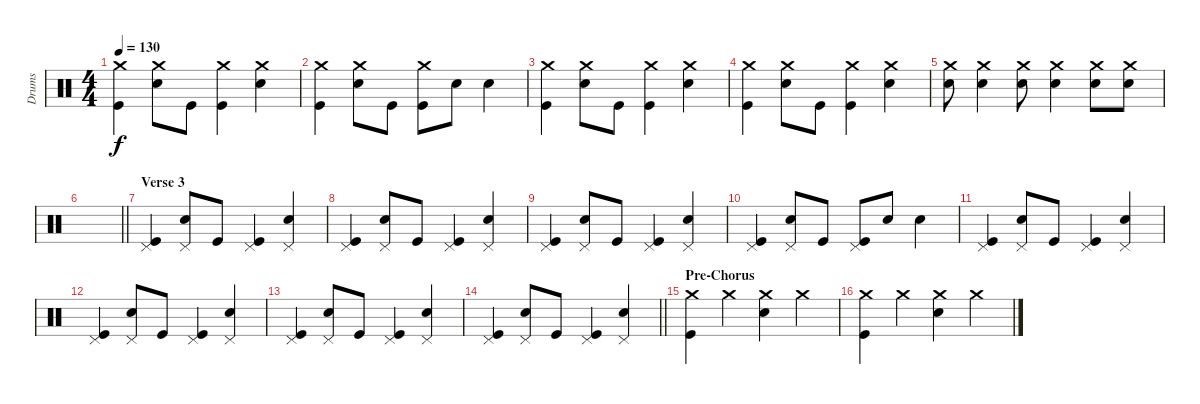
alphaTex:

\track ("Drums" "Drums") {instrument percussion}
\staff {score}
\articulation defaults
\ts (4 4)
\tempo 130
\clef neutral
\ks c
("Kick (hit)" "Crash medium (hit)").4{dy f} ("Electric Snare (hit)" "Crash medium (hit)").8 "Kick (hit)".8 ("Kick (hit)" "Crash medium (hit)").4 ("Electric Snare (hit)" "Crash medium (hit)").4 |
("Kick (hit)" "Crash medium (hit)").4 ("Electric Snare (hit)" "Crash medium (hit)").8 "Kick (hit)".8 ("Kick (hit)" "Crash medium (hit)").8 "Electric Snare (hit)".8 "Electric Snare (hit)".4 |
("Kick (hit)" "Crash medium (hit)").4 ("Electric Snare (hit)" "Crash medium (hit)").8 "Kick (hit)".8 ("Kick (hit)" "Crash medium (hit)").4 ("Electric Snare (hit)" "Crash medium (hit)").4 |
("Kick (hit)" "Crash medium (hit)").4 ("Electric Snare (hit)" "Crash medium (hit)").8 "Kick (hit)".8 ("Kick (hit)" "Crash medium (hit)").4 ("Electric Snare (hit)" "Crash medium (hit)").4 |
("Electric Snare (hit)" "Crash medium (hit)").8 ("Electric Snare (hit)" "Crash medium (hit)").4 ("Electric Snare (hit)" "Crash medium (hit)").8 ("Electric Snare (hit)" "Crash medium (hit)").4 ("Electric Snare (hit)" "Crash medium (hit)").8 ("Electric Snare (hit)" "Crash medium (hit)").8 |
\barLineRight lightlight
|
\section ("" "Verse 3")
("Kick (hit)" "Pedal Hi-Hat (hit)").4 ("Electric Snare (hit)" "Pedal Hi-Hat (hit)").8 "Kick (hit)".8 ("Kick (hit)" "Pedal Hi-Hat (hit)").4 ("Electric Snare (hit)" "Pedal Hi-Hat (hit)").4 |
("Kick (hit)" "Pedal Hi-Hat (hit)").4 ("Electric Snare (hit)" "Pedal Hi-Hat (hit)").8 "Kick (hit)".8 ("Kick (hit)" "Pedal Hi-Hat (hit)").4 ("Electric Snare (hit)" "Pedal Hi-Hat (hit)").4 |
("Kick (hit)" "Pedal Hi-Hat (hit)").4 ("Electric Snare (hit)" "Pedal Hi-Hat (hit)").8 "Kick (hit)".8 ("Kick (hit)" "Pedal Hi-Hat (hit)").4 ("Electric Snare (hit)" "Pedal Hi-Hat (hit)").4 |
("Kick (hit)" "Pedal Hi-Hat (hit)").4 ("Electric Snare (hit)" "Pedal Hi-Hat (hit)").8 "Kick (hit)".8 ("Kick (hit)" "Pedal Hi-Hat (hit)").8 "Electric Snare (hit)".8 "Electric Snare (hit)".4 |
("Kick (hit)" "Pedal Hi-Hat (hit)").4 ("Electric Snare (hit)" "Pedal Hi-Hat (hit)").8 "Kick (hit)".8 ("Kick (hit)" "Pedal Hi-Hat (hit)").4 ("Electric Snare (hit)" "Pedal Hi-Hat (hit)").4 |
("Kick (hit)" "Pedal Hi-Hat (hit)").4 ("Electric Snare (hit)" "Pedal Hi-Hat (hit)").8 "Kick (hit)".8 ("Kick (hit)" "Pedal Hi-Hat (hit)").4 ("Electric Snare (hit)" "Pedal Hi-Hat (hit)").4 |
("Kick (hit)" "Pedal Hi-Hat (hit)").4 ("Electric Snare (hit)" "Pedal Hi-Hat (hit)").8 "Kick (hit)".8 ("Kick (hit)" "Pedal Hi-Hat (hit)").4 ("Electric Snare (hit)" "Pedal Hi-Hat (hit)").4 |
\barLineRight lightlight
("Kick (hit)" "Pedal Hi-Hat (hit)").4 ("Electric Snare (hit)" "Pedal Hi-Hat (hit)").8 "Kick (hit)".8 ("Kick (hit)" "Pedal Hi-Hat (hit)").4 ("Electric Snare (hit)" "Pedal Hi-Hat (hit)").4 |
\section ("" "Pre-Chorus")
("Kick (hit)" "Crash medium (hit)").4 "Crash medium (hit)".4 ("Electric Snare (hit)" "Crash medium (hit)").4 "Crash medium (hit)".4 |
("Kick (hit)" "Crash medium (hit)").4 "Crash medium (hit)".4 ("Electric Snare (hit)" "Crash medium (hit)").4 "Crash medium (hit)".4
